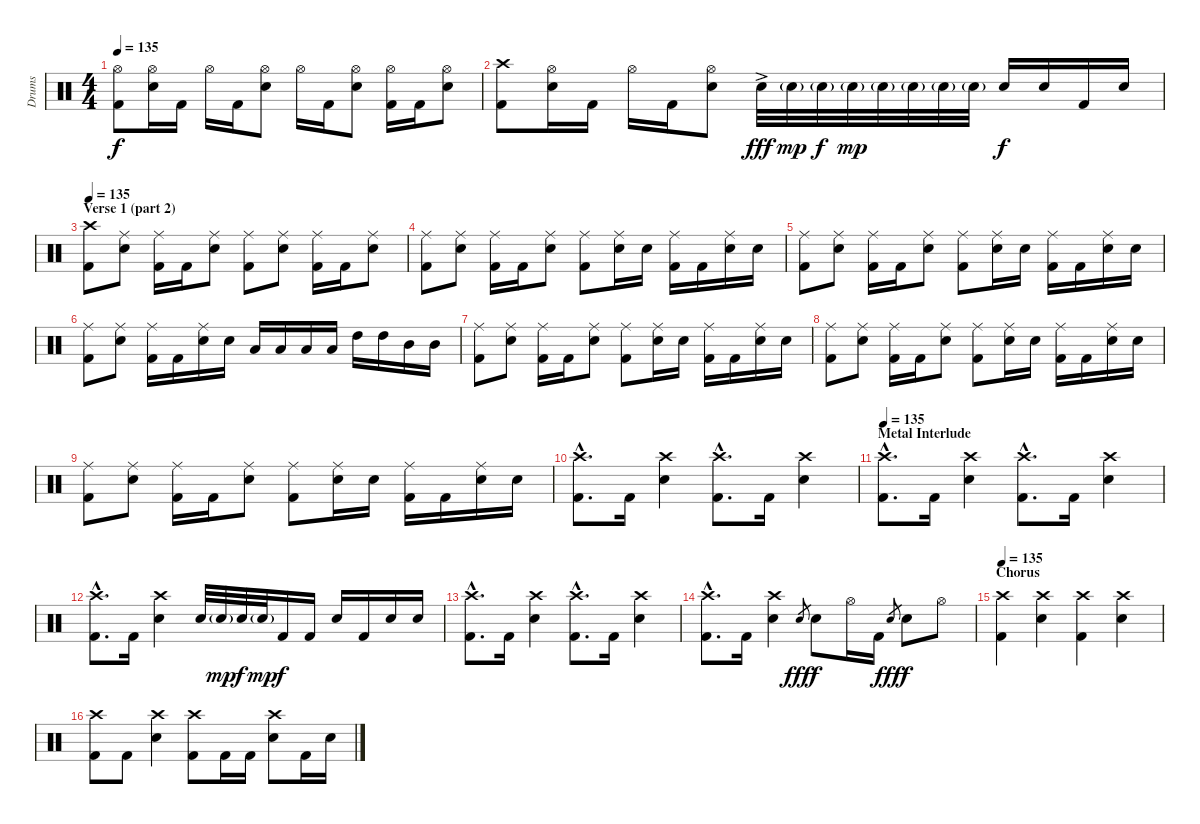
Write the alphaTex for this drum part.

\track ("Drums" "Drums") {instrument percussion}
\staff {score}
\articulation defaults
\ts (4 4)
\tempo 135
\clef neutral
\ks c
("Hi-Hat (open)" "Kick (hit) 2").8{dy f} ("Hi-Hat (open)" "Electric Snare (hit)").16 "Kick (hit) 2".16 "Hi-Hat (open)".16 "Kick (hit) 2".16 ("Hi-Hat (open)" "Electric Snare (hit)").8 "Hi-Hat (open)".16 "Kick (hit) 2".16 ("Hi-Hat (open)" "Electric Snare (hit)").8 ("Hi-Hat (open)" "Kick (hit) 2").16 "Kick (hit) 2".16 ("Hi-Hat (open)" "Electric Snare (hit)").8 |
("Crash high (hit)" "Kick (hit) 2").8 ("Hi-Hat (open)" "Electric Snare (hit)").16 "Kick (hit) 2".16 "Hi-Hat (open)".16 "Kick (hit) 2".16 ("Hi-Hat (open)" "Electric Snare (hit)").8 "Electric Snare (hit)"{ac}.32{dy fff} "Electric Snare (hit)"{g}.32{dy mp} "Electric Snare (hit)"{g}.32{dy f} "Electric Snare (hit)"{g}.32{dy mp} "Electric Snare (hit)"{g}.32 "Electric Snare (hit)"{g}.32 "Electric Snare (hit)"{g}.32 "Electric Snare (hit)"{g}.32 "Electric Snare (hit)".16{dy f} "Electric Snare (hit)".16 "Kick (hit) 2".16 "Electric Snare (hit)".16 |
\section ("" "Verse 1 (part 2)")
\tempo 135
("Crash high (hit)" "Kick (hit) 2").8 ("Ride (middle)" "Electric Snare (hit)").8 ("Ride (middle)" "Kick (hit) 2").16 "Kick (hit) 2".16 ("Ride (middle)" "Electric Snare (hit)").8 ("Ride (middle)" "Kick (hit) 2").8 ("Ride (middle)" "Electric Snare (hit)").8 ("Ride (middle)" "Kick (hit) 2").16 "Kick (hit) 2".16 ("Ride (middle)" "Electric Snare (hit)").8 |
("Ride (middle)" "Kick (hit) 2").8 ("Ride (middle)" "Electric Snare (hit)").8 ("Ride (middle)" "Kick (hit) 2").16 "Kick (hit) 2".16 ("Ride (middle)" "Electric Snare (hit)").8 ("Ride (middle)" "Kick (hit) 2").8 ("Ride (middle)" "Electric Snare (hit)").16 "Electric Snare (hit)".16 ("Ride (middle)" "Kick (hit) 2").16 "Kick (hit) 2".16 ("Ride (middle)" "Electric Snare (hit)").16 "Electric Snare (hit)".16 |
("Ride (middle)" "Kick (hit) 2").8 ("Ride (middle)" "Electric Snare (hit)").8 ("Ride (middle)" "Kick (hit) 2").16 "Kick (hit) 2".16 ("Ride (middle)" "Electric Snare (hit)").8 ("Ride (middle)" "Kick (hit) 2").8 ("Ride (middle)" "Electric Snare (hit)").16 "Electric Snare (hit)".16 ("Ride (middle)" "Kick (hit) 2").16 "Kick (hit) 2".16 ("Ride (middle)" "Electric Snare (hit)").16 "Electric Snare (hit)".16 |
("Ride (middle)" "Kick (hit) 2").8 ("Ride (middle)" "Electric Snare (hit)").8 ("Ride (middle)" "Kick (hit) 2").16 "Kick (hit) 2".16 ("Ride (middle)" "Electric Snare (hit)").16 "Electric Snare (hit)".16 "Low Tom (hit)".16 "Low Tom (hit)".16 "Low Tom (hit)".16 "Low Tom (hit)".16 "High Tom (hit)".16 "High Tom (hit)".16 "Mid Tom (hit)".16 "Mid Tom (hit)".16 |
("Ride (middle)" "Kick (hit) 2").8 ("Ride (middle)" "Electric Snare (hit)").8 ("Ride (middle)" "Kick (hit) 2").16 "Kick (hit) 2".16 ("Ride (middle)" "Electric Snare (hit)").8 ("Ride (middle)" "Kick (hit) 2").8 ("Ride (middle)" "Electric Snare (hit)").16 "Electric Snare (hit)".16 ("Ride (middle)" "Kick (hit) 2").16 "Kick (hit) 2".16 ("Ride (middle)" "Electric Snare (hit)").16 "Electric Snare (hit)".16 |
("Ride (middle)" "Kick (hit) 2").8 ("Ride (middle)" "Electric Snare (hit)").8 ("Ride (middle)" "Kick (hit) 2").16 "Kick (hit) 2".16 ("Ride (middle)" "Electric Snare (hit)").8 ("Ride (middle)" "Kick (hit) 2").8 ("Ride (middle)" "Electric Snare (hit)").16 "Electric Snare (hit)".16 ("Ride (middle)" "Kick (hit) 2").16 "Kick (hit) 2".16 ("Ride (middle)" "Electric Snare (hit)").16 "Electric Snare (hit)".16 |
("Ride (middle)" "Kick (hit) 2").8 ("Ride (middle)" "Electric Snare (hit)").8 ("Ride (middle)" "Kick (hit) 2").16 "Kick (hit) 2".16 ("Ride (middle)" "Electric Snare (hit)").8 ("Ride (middle)" "Kick (hit) 2").8 ("Ride (middle)" "Electric Snare (hit)").16 "Electric Snare (hit)".16 ("Ride (middle)" "Kick (hit) 2").16 "Kick (hit) 2".16 ("Ride (middle)" "Electric Snare (hit)").16 "Electric Snare (hit)".16 |
("Crash high (hit)"{hac} "Kick (hit) 2"{hac}).8{d} "Kick (hit) 2".16 ("Crash high (hit)" "Electric Snare (hit)").4 ("Crash high (hit)"{hac} "Kick (hit) 2"{hac}).8{d} "Kick (hit) 2".16 ("Crash high (hit)" "Electric Snare (hit)").4 |
\section ("" "Metal Interlude")
\tempo 135
("Crash high (hit)"{hac} "Kick (hit) 2"{hac}).8{d} "Kick (hit) 2".16 ("Crash high (hit)" "Electric Snare (hit)").4 ("Crash high (hit)"{hac} "Kick (hit) 2"{hac}).8{d} "Kick (hit) 2".16 ("Crash high (hit)" "Electric Snare (hit)").4 |
("Crash high (hit)"{hac} "Kick (hit) 2"{hac}).8{d} "Kick (hit) 2".16 ("Crash high (hit)" "Electric Snare (hit)").4 "Electric Snare (hit)".32 "Electric Snare (hit)"{g}.32{dy mp} "Electric Snare (hit)".32{dy f} "Electric Snare (hit)"{g}.32{dy mp} "Kick (hit) 2".16{dy f} "Kick (hit) 2".16 "Electric Snare (hit)".16 "Kick (hit) 2".16 "Electric Snare (hit)".16 "Electric Snare (hit)".16 |
("Crash high (hit)"{hac} "Kick (hit) 2"{hac}).8{d} "Kick (hit) 2".16 ("Crash high (hit)" "Electric Snare (hit)").4 ("Crash high (hit)"{hac} "Kick (hit) 2"{hac}).8{d} "Kick (hit) 2".16 ("Crash high (hit)" "Electric Snare (hit)").4 |
("Crash high (hit)"{hac} "Kick (hit) 2"{hac}).8{d} "Kick (hit) 2".16 ("Crash high (hit)" "Electric Snare (hit)").4 "Electric Snare (hit)".8{gr dy fff} "Electric Snare (hit)".8{dy f} "Hi-Hat (open)".16 "Kick (hit) 2".16 "Electric Snare (hit)".8{gr dy fff} "Electric Snare (hit)".8{dy f} "Hi-Hat (open)".8 |
\section ("" "Chorus")
\tempo 135
("Crash high (hit)" "Kick (hit) 2").4 ("Crash high (hit)" "Electric Snare (hit)").4 ("Crash high (hit)" "Kick (hit) 2").4 ("Crash high (hit)" "Electric Snare (hit)").4 |
("Crash high (hit)" "Kick (hit) 2").8 "Kick (hit) 2".8 ("Crash high (hit)" "Electric Snare (hit)").4 ("Crash high (hit)" "Kick (hit) 2").8 "Kick (hit) 2".16 "Kick (hit) 2".16 ("Crash high (hit)" "Electric Snare (hit)").8 "Kick (hit) 2".16 "Electric Snare (hit)".16
